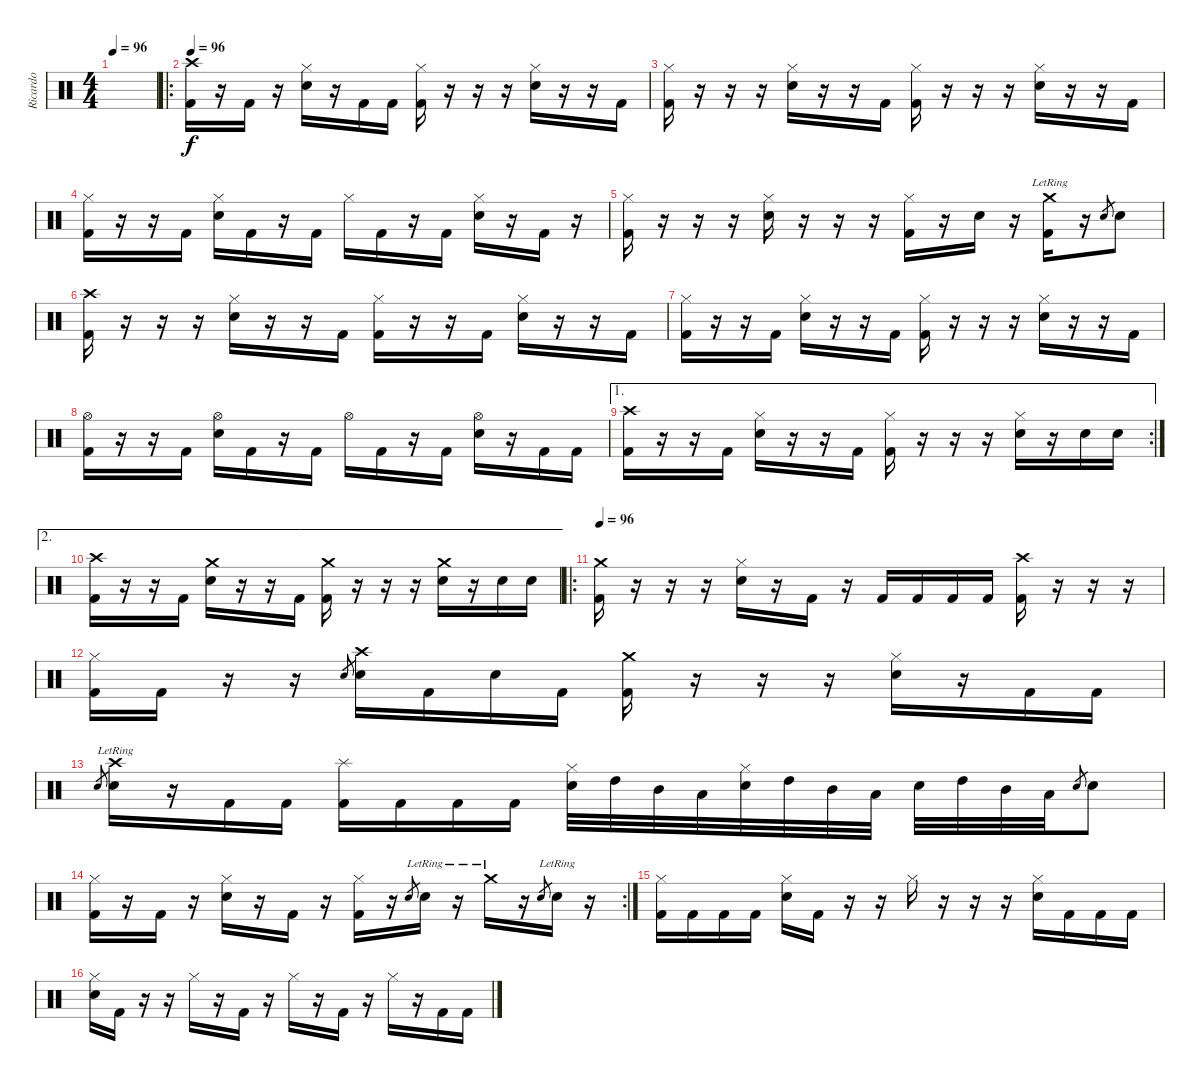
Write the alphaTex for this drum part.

\track ("Ricardo" "Ricardo") {instrument percussion}
\staff {score}
\articulation defaults
\ts (4 4)
\tempo 96
\clef neutral
\ks c
|
\ro
\tempo 96
("Crash high (hit)" "Kick (hit) 2").16 r.16 "Kick (hit) 2".16 r.16 ("Hi-Hat (closed)" "Snare (hit) 2").16 r.16 "Kick (hit) 2".16 "Kick (hit) 2".16 ("Hi-Hat (closed)" "Kick (hit) 2").16 r.16 r.16 r.16 ("Hi-Hat (closed)" "Snare (hit) 2").16 r.16 r.16 "Kick (hit) 2".16 |
("Hi-Hat (closed)" "Kick (hit) 2").16 r.16 r.16 r.16 ("Hi-Hat (closed)" "Snare (hit) 2").16 r.16 r.16 "Kick (hit) 2".16 ("Hi-Hat (closed)" "Kick (hit) 2").16 r.16 r.16 r.16 ("Hi-Hat (closed)" "Snare (hit) 2").16 r.16 r.16 "Kick (hit) 2".16 |
("Hi-Hat (closed)" "Kick (hit) 2").16 r.16 r.16 "Kick (hit) 2".16 ("Hi-Hat (closed)" "Snare (hit) 2").16 "Kick (hit) 2".16 r.16 "Kick (hit) 2".16 "Hi-Hat (closed)".16 "Kick (hit) 2".16 r.16 "Kick (hit) 2".16 ("Hi-Hat (closed)" "Snare (hit) 2").16 r.16 "Kick (hit) 2".16 r.16 |
("Hi-Hat (closed)" "Kick (hit) 2").16 r.16 r.16 r.16 ("Hi-Hat (closed)" "Snare (hit) 2").16 r.16 r.16 r.16 ("Hi-Hat (closed)" "Kick (hit) 2").16 r.16 "Snare (hit) 2".16 r.16 ("Crash medium (hit)"{lr} "Kick (hit) 2").16 r.16 "Snare (hit) 2".8{gr} "Snare (hit) 2".8 |
("Crash high (hit)" "Kick (hit) 2").16 r.16 r.16 r.16 ("Hi-Hat (closed)" "Snare (hit) 2").16 r.16 r.16 "Kick (hit) 2".16 ("Hi-Hat (closed)" "Kick (hit) 2").16 r.16 r.16 "Kick (hit) 2".16 ("Hi-Hat (closed)" "Snare (hit) 2").16 r.16 r.16 "Kick (hit) 2".16 |
("Hi-Hat (closed)" "Kick (hit) 2").16 r.16 r.16 "Kick (hit) 2".16 ("Hi-Hat (closed)" "Snare (hit) 2").16 r.16 r.16 "Kick (hit) 2".16 ("Hi-Hat (closed)" "Kick (hit) 2").16 r.16 r.16 r.16 ("Hi-Hat (closed)" "Snare (hit) 2").16 r.16 r.16 "Kick (hit) 2".16 |
("Hi-Hat (open)" "Kick (hit) 2").16 r.16 r.16 "Kick (hit) 2".16 ("Hi-Hat (open)" "Snare (hit) 2").16 "Kick (hit) 2".16 r.16 "Kick (hit) 2".16 "Hi-Hat (open)".16 "Kick (hit) 2".16 r.16 "Kick (hit) 2".16 ("Hi-Hat (open)" "Snare (hit) 2").16 r.16 "Kick (hit) 2".16 "Kick (hit) 2".16 |
\ae 1
\rc 2
("Crash high (hit)" "Kick (hit) 2").16 r.16 r.16 "Kick (hit) 2".16 ("Hi-Hat (closed)" "Snare (hit) 2").16 r.16 r.16 "Kick (hit) 2".16 ("Hi-Hat (closed)" "Kick (hit) 2").16 r.16 r.16 r.16 ("Hi-Hat (closed)" "Snare (hit) 2").16 r.16 "Snare (hit) 2".16 "Snare (hit) 2".16 |
\ae 2
("Crash high (hit)" "Kick (hit) 2").16 r.16 r.16 "Kick (hit) 2".16 ("Crash medium (hit)" "Snare (hit) 2").16 r.16 r.16 "Kick (hit) 2".16 ("Crash medium (hit)" "Kick (hit) 2").16 r.16 r.16 r.16 ("Crash medium (hit)" "Snare (hit) 2").16 r.16 "Snare (hit) 2".16 "Snare (hit) 2".16 |
\ro
\tempo 96
("Crash medium (hit)" "Kick (hit) 2").16 r.16 r.16 r.16 ("Hi-Hat (closed)" "Snare (hit) 2").16 r.16 "Kick (hit) 2".16 r.16 "Kick (hit) 2".16 "Kick (hit) 2".16 "Kick (hit) 2".16 "Kick (hit) 2".16 ("Crash high (hit)" "Kick (hit) 2").16 r.16 r.16 r.16 |
("Hi-Hat (closed)" "Kick (hit) 2").16 "Kick (hit) 2".16 r.16 r.16 "Snare (hit) 2".8{gr} ("Crash high (hit)" "Snare (hit) 2").16 "Kick (hit) 2".16 "Snare (hit) 2".16 "Kick (hit) 2".16 ("Crash medium (hit)" "Kick (hit) 2").16 r.16 r.16 r.16 ("Hi-Hat (closed)" "Snare (hit) 2").16 r.16 "Kick (hit) 2".16 "Kick (hit) 2".16 |
"Snare (hit) 2".8{gr} ("Crash high (hit)"{lr} "Snare (hit) 2").16 r.16 "Kick (hit) 2".16 "Kick (hit) 2".16 ("Splash (hit)" "Kick (hit) 2").16 "Kick (hit) 2".16 "Kick (hit) 2".16 "Kick (hit) 2".16 ("Hi-Hat (closed)" "Snare (hit) 2").32 "High Tom (hit)".32 "Mid Tom (hit)".32 "Low Tom (hit)".32 ("Hi-Hat (closed)" "Snare (hit) 2").32 "High Tom (hit)".32 "Mid Tom (hit)".32 "Low Tom (hit)".32 "Snare (hit) 2".32 "High Tom (hit)".32 "Mid Tom (hit)".32 "Low Tom (hit)".32 "Snare (hit) 2".8{gr} "Snare (hit) 2".8 |
\rc 2
("Hi-Hat (closed)" "Kick (hit) 2").16 r.16 "Kick (hit) 2".16 r.16 ("Hi-Hat (closed)" "Snare (hit) 2").16 r.16 "Kick (hit) 2".16 r.16 ("Hi-Hat (closed)" "Kick (hit) 2").16 r.16 "Snare (hit) 2".8{gr} "Snare (hit) 2"{lr}.16 r.16 "Crash medium (hit)"{lr}.16 r.16 "Snare (hit) 2".8{gr} "Snare (hit) 2"{lr}.16 r.16 |
("Hi-Hat (closed)" "Kick (hit) 2").16 "Kick (hit) 2".16 "Kick (hit) 2".16 "Kick (hit) 2".16 ("Hi-Hat (closed)" "Snare (hit) 2").16 "Kick (hit) 2".16 r.16 r.16 "Hi-Hat (closed)".16 r.16 r.16 r.16 ("Hi-Hat (closed)" "Snare (hit) 2").16 "Kick (hit) 2".16 "Kick (hit) 2".16 "Kick (hit) 2".16 |
("Hi-Hat (closed)" "Snare (hit) 2").16 "Kick (hit) 2".16 r.16 r.16 "Hi-Hat (closed)".16 r.16 "Kick (hit) 2".16 r.16 "Hi-Hat (closed)".16 r.16 "Kick (hit) 2".16 r.16 "Hi-Hat (closed)".16 r.16 "Kick (hit) 2".16 "Kick (hit) 2".16
